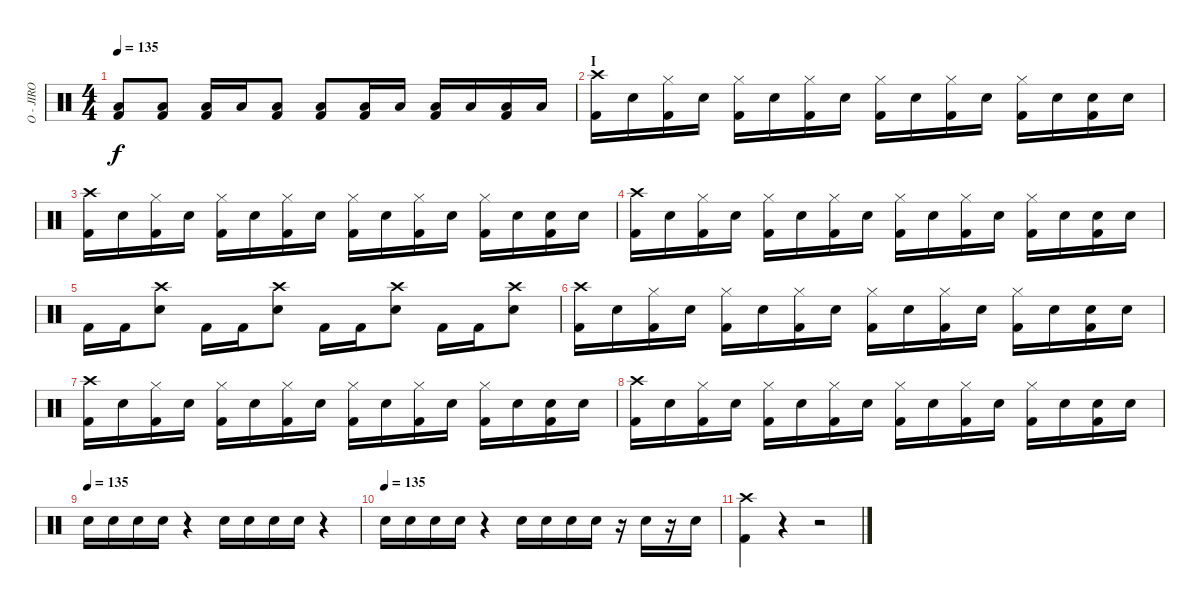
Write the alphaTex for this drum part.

\track ("O - JIRO" "O - JIRO") {instrument percussion}
\staff {score}
\articulation defaults
\ts (4 4)
\tempo 135
\clef neutral
\ks c
("Low Floor Tom (hit)" "Kick (hit) 2").8{dy f} ("Low Floor Tom (hit)" "Kick (hit) 2").8 ("Low Floor Tom (hit)" "Kick (hit) 2").16 "Low Tom (hit)".16 ("Low Floor Tom (hit)" "Kick (hit) 2").8 ("Low Floor Tom (hit)" "Kick (hit) 2").8 ("Low Floor Tom (hit)" "Kick (hit) 2").16 "Low Tom (hit)".16 ("Low Floor Tom (hit)" "Kick (hit) 2").16 "Low Floor Tom (hit)".16 ("Low Tom (hit)" "Kick (hit) 2").16 "Low Tom (hit)".16 |
\section ("" "I")
("Crash high (hit)" "Kick (hit) 2").16 "Snare (hit) 2".16 ("Hi-Hat (closed)" "Kick (hit) 2").16 "Snare (hit) 2".16 ("Hi-Hat (closed)" "Kick (hit) 2").16 "Snare (hit) 2".16 ("Hi-Hat (closed)" "Kick (hit) 2").16 "Snare (hit) 2".16 ("Hi-Hat (closed)" "Kick (hit) 2").16 "Snare (hit) 2".16 ("Hi-Hat (closed)" "Kick (hit) 2").16 "Snare (hit) 2".16 ("Hi-Hat (closed)" "Kick (hit) 2").16 "Snare (hit) 2".16 ("Snare (hit) 2" "Kick (hit) 2").16 "Snare (hit) 2".16 |
("Crash high (hit)" "Kick (hit) 2").16 "Snare (hit) 2".16 ("Hi-Hat (closed)" "Kick (hit) 2").16 "Snare (hit) 2".16 ("Hi-Hat (closed)" "Kick (hit) 2").16 "Snare (hit) 2".16 ("Hi-Hat (closed)" "Kick (hit) 2").16 "Snare (hit) 2".16 ("Hi-Hat (closed)" "Kick (hit) 2").16 "Snare (hit) 2".16 ("Hi-Hat (closed)" "Kick (hit) 2").16 "Snare (hit) 2".16 ("Hi-Hat (closed)" "Kick (hit) 2").16 "Snare (hit) 2".16 ("Snare (hit) 2" "Kick (hit) 2").16 "Snare (hit) 2".16 |
("Crash high (hit)" "Kick (hit) 2").16 "Snare (hit) 2".16 ("Hi-Hat (closed)" "Kick (hit) 2").16 "Snare (hit) 2".16 ("Hi-Hat (closed)" "Kick (hit) 2").16 "Snare (hit) 2".16 ("Hi-Hat (closed)" "Kick (hit) 2").16 "Snare (hit) 2".16 ("Hi-Hat (closed)" "Kick (hit) 2").16 "Snare (hit) 2".16 ("Hi-Hat (closed)" "Kick (hit) 2").16 "Snare (hit) 2".16 ("Hi-Hat (closed)" "Kick (hit) 2").16 "Snare (hit) 2".16 ("Snare (hit) 2" "Kick (hit) 2").16 "Snare (hit) 2".16 |
"Kick (hit) 2".16 "Kick (hit) 2".16 ("Crash high (hit)" "Snare (hit) 2").8 "Kick (hit) 2".16 "Kick (hit) 2".16 ("Crash high (hit)" "Snare (hit) 2").8 "Kick (hit) 2".16 "Kick (hit) 2".16 ("Crash high (hit)" "Snare (hit) 2").8 "Kick (hit) 2".16 "Kick (hit) 2".16 ("Crash high (hit)" "Snare (hit) 2").8 |
("Crash high (hit)" "Kick (hit) 2").16 "Snare (hit) 2".16 ("Hi-Hat (closed)" "Kick (hit) 2").16 "Snare (hit) 2".16 ("Hi-Hat (closed)" "Kick (hit) 2").16 "Snare (hit) 2".16 ("Hi-Hat (closed)" "Kick (hit) 2").16 "Snare (hit) 2".16 ("Hi-Hat (closed)" "Kick (hit) 2").16 "Snare (hit) 2".16 ("Hi-Hat (closed)" "Kick (hit) 2").16 "Snare (hit) 2".16 ("Hi-Hat (closed)" "Kick (hit) 2").16 "Snare (hit) 2".16 ("Snare (hit) 2" "Kick (hit) 2").16 "Snare (hit) 2".16 |
("Crash high (hit)" "Kick (hit) 2").16 "Snare (hit) 2".16 ("Hi-Hat (closed)" "Kick (hit) 2").16 "Snare (hit) 2".16 ("Hi-Hat (closed)" "Kick (hit) 2").16 "Snare (hit) 2".16 ("Hi-Hat (closed)" "Kick (hit) 2").16 "Snare (hit) 2".16 ("Hi-Hat (closed)" "Kick (hit) 2").16 "Snare (hit) 2".16 ("Hi-Hat (closed)" "Kick (hit) 2").16 "Snare (hit) 2".16 ("Hi-Hat (closed)" "Kick (hit) 2").16 "Snare (hit) 2".16 ("Snare (hit) 2" "Kick (hit) 2").16 "Snare (hit) 2".16 |
("Crash high (hit)" "Kick (hit) 2").16 "Snare (hit) 2".16 ("Hi-Hat (closed)" "Kick (hit) 2").16 "Snare (hit) 2".16 ("Hi-Hat (closed)" "Kick (hit) 2").16 "Snare (hit) 2".16 ("Hi-Hat (closed)" "Kick (hit) 2").16 "Snare (hit) 2".16 ("Hi-Hat (closed)" "Kick (hit) 2").16 "Snare (hit) 2".16 ("Hi-Hat (closed)" "Kick (hit) 2").16 "Snare (hit) 2".16 ("Hi-Hat (closed)" "Kick (hit) 2").16 "Snare (hit) 2".16 ("Snare (hit) 2" "Kick (hit) 2").16 "Snare (hit) 2".16 |
\tempo (135)
"Snare (hit) 2".16 "Snare (hit) 2".16 "Snare (hit) 2".16 "Snare (hit) 2".16 r.4 "Snare (hit) 2".16 "Snare (hit) 2".16 "Snare (hit) 2".16 "Snare (hit) 2".16 r.4 |
\tempo (135)
"Snare (hit) 2".16 "Snare (hit) 2".16 "Snare (hit) 2".16 "Snare (hit) 2".16 r.4 "Snare (hit) 2".16 "Snare (hit) 2".16 "Snare (hit) 2".16 "Snare (hit) 2".16 r.16 "Snare (hit) 2".16 r.16 "Snare (hit) 2".16 |
("Crash high (hit)" "Kick (hit) 2").4 r.4 r.2
